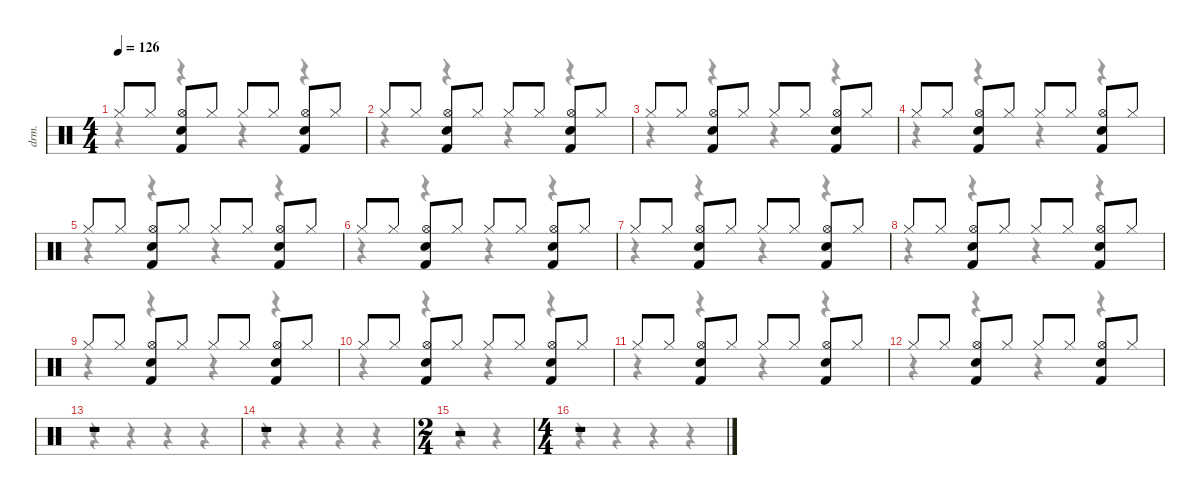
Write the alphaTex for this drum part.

\defaultSystemsLayout 4
\hideDynamics
\bracketExtendMode nobrackets
\otherSystemsTrackNameOrientation horizontal
\track ("drums" "drm.") {instrument percussion}
\staff {score}
\articulation defaults
\voice
\ts (4 4)
\tempo 126
\clef neutral
\ks c "Hi-Hat (closed)".8{dy f} "Hi-Hat (closed)".8
("Snare (hit) 2" "Hi-Hat (open)" "Kick (hit) 2").8 "Hi-Hat (closed)".8 "Hi-Hat (closed)".8 "Hi-Hat (closed)".8 ("Snare (hit) 2" "Hi-Hat (open)" "Kick (hit) 2").8 "Hi-Hat (closed)".8 |
"Hi-Hat (closed)".8 "Hi-Hat (closed)".8 ("Snare (hit) 2" "Hi-Hat (open)" "Kick (hit) 2").8 "Hi-Hat (closed)".8 "Hi-Hat (closed)".8 "Hi-Hat (closed)".8 ("Snare (hit) 2" "Hi-Hat (open)" "Kick (hit) 2").8 "Hi-Hat (closed)".8 |
"Hi-Hat (closed)".8 "Hi-Hat (closed)".8 ("Snare (hit) 2" "Hi-Hat (open)" "Kick (hit) 2").8 "Hi-Hat (closed)".8 "Hi-Hat (closed)".8 "Hi-Hat (closed)".8 ("Snare (hit) 2" "Hi-Hat (open)" "Kick (hit) 2").8 "Hi-Hat (closed)".8 |
"Hi-Hat (closed)".8 "Hi-Hat (closed)".8 ("Snare (hit) 2" "Hi-Hat (open)" "Kick (hit) 2").8 "Hi-Hat (closed)".8 "Hi-Hat (closed)".8 "Hi-Hat (closed)".8 ("Snare (hit) 2" "Hi-Hat (open)" "Kick (hit) 2").8 "Hi-Hat (closed)".8 |
"Hi-Hat (closed)".8 "Hi-Hat (closed)".8 ("Snare (hit) 2" "Hi-Hat (open)" "Kick (hit) 2").8 "Hi-Hat (closed)".8 "Hi-Hat (closed)".8 "Hi-Hat (closed)".8 ("Snare (hit) 2" "Hi-Hat (open)" "Kick (hit) 2").8 "Hi-Hat (closed)".8 |
"Hi-Hat (closed)".8 "Hi-Hat (closed)".8 ("Snare (hit) 2" "Hi-Hat (open)" "Kick (hit) 2").8 "Hi-Hat (closed)".8 "Hi-Hat (closed)".8 "Hi-Hat (closed)".8 ("Snare (hit) 2" "Hi-Hat (open)" "Kick (hit) 2").8 "Hi-Hat (closed)".8 |
"Hi-Hat (closed)".8 "Hi-Hat (closed)".8 ("Snare (hit) 2" "Hi-Hat (open)" "Kick (hit) 2").8 "Hi-Hat (closed)".8 "Hi-Hat (closed)".8 "Hi-Hat (closed)".8 ("Snare (hit) 2" "Hi-Hat (open)" "Kick (hit) 2").8 "Hi-Hat (closed)".8 |
"Hi-Hat (closed)".8 "Hi-Hat (closed)".8 ("Snare (hit) 2" "Hi-Hat (open)" "Kick (hit) 2").8 "Hi-Hat (closed)".8 "Hi-Hat (closed)".8 "Hi-Hat (closed)".8 ("Snare (hit) 2" "Hi-Hat (open)" "Kick (hit) 2").8 "Hi-Hat (closed)".8 |
"Hi-Hat (closed)".8 "Hi-Hat (closed)".8 ("Snare (hit) 2" "Hi-Hat (open)" "Kick (hit) 2").8 "Hi-Hat (closed)".8 "Hi-Hat (closed)".8 "Hi-Hat (closed)".8 ("Snare (hit) 2" "Hi-Hat (open)" "Kick (hit) 2").8 "Hi-Hat (closed)".8 |
"Hi-Hat (closed)".8 "Hi-Hat (closed)".8 ("Snare (hit) 2" "Hi-Hat (open)" "Kick (hit) 2").8 "Hi-Hat (closed)".8 "Hi-Hat (closed)".8 "Hi-Hat (closed)".8 ("Snare (hit) 2" "Hi-Hat (open)" "Kick (hit) 2").8 "Hi-Hat (closed)".8 |
"Hi-Hat (closed)".8 "Hi-Hat (closed)".8 ("Snare (hit) 2" "Hi-Hat (open)" "Kick (hit) 2").8 "Hi-Hat (closed)".8 "Hi-Hat (closed)".8 "Hi-Hat (closed)".8 ("Snare (hit) 2" "Hi-Hat (open)" "Kick (hit) 2").8 "Hi-Hat (closed)".8 |
"Hi-Hat (closed)".8 "Hi-Hat (closed)".8 ("Snare (hit) 2" "Hi-Hat (open)" "Kick (hit) 2").8 "Hi-Hat (closed)".8 "Hi-Hat (closed)".8 "Hi-Hat (closed)".8 ("Snare (hit) 2" "Hi-Hat (open)" "Kick (hit) 2").8 "Hi-Hat (closed)".8 |
r.1 |
r.1 |
\ts (2 4)
\beaming (8 1 1 1 1)
r.2 |
\ts (4 4)
\beaming (8 2 2 2 2)
r.1
\voice
\clef neutral
\ottava regular
\simile none
\ks c
r.4{dy mf} r.4 r.4 r.4 |
r.4 r.4 r.4 r.4 |
r.4 r.4 r.4 r.4 |
r.4 r.4 r.4 r.4 |
r.4 r.4 r.4 r.4 |
r.4 r.4 r.4 r.4 |
r.4 r.4 r.4 r.4 |
r.4 r.4 r.4 r.4 |
r.4 r.4 r.4 r.4 |
r.4 r.4 r.4 r.4 |
r.4 r.4 r.4 r.4 |
r.4 r.4 r.4 r.4 |
r.4 r.4 r.4 r.4 |
r.4 r.4 r.4 r.4 |
r.4 r.4 |
r.4 r.4 r.4 r.4
